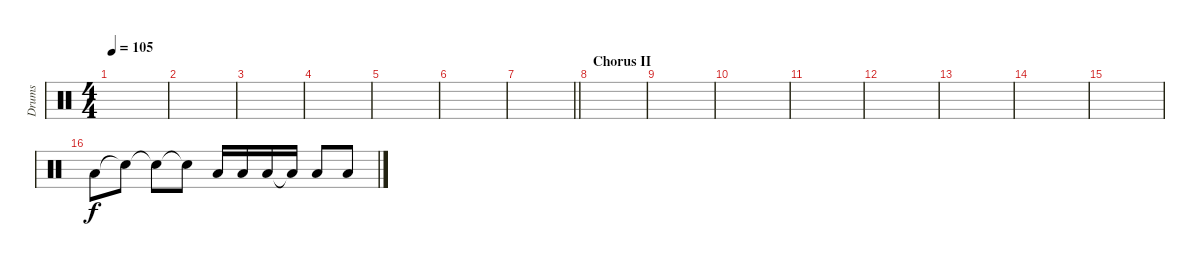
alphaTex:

\track ("Drums" "Drums") {instrument percussion}
\staff {score}
\articulation defaults
\ts (4 4)
\tempo 105
\clef neutral
\ks c
|
|
|
|
|
|
\barLineRight lightlight
|
\section ("" "Chorus II")
|
|
|
|
|
|
|
|
"Low Floor Tom (hit)".8 "Snare (hit)"{t}.8 "Snare (hit)"{t}.8 "Snare (hit)"{t}.8 "Low Floor Tom (hit)".16 "Low Floor Tom (hit)".16 "Low Floor Tom (hit)".16 "Low Floor Tom (hit)"{t}.16 "Low Floor Tom (hit)".8 "Low Floor Tom (hit)".8
